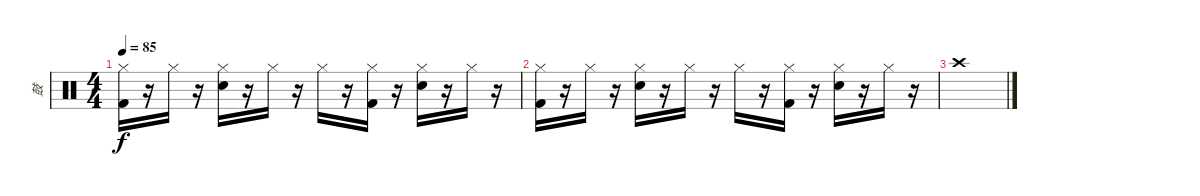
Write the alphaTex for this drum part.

\track ("鼓" "鼓") {instrument percussion}
\staff {score}
\articulation defaults
\ts (4 4)
\tempo 85
\clef neutral
\ks c
("Hi-Hat (closed)" "Kick (hit) 2").16{dy f} r.16 "Hi-Hat (closed)".16 r.16 ("Hi-Hat (closed)" "Snare (hit) 2").16 r.16 "Hi-Hat (closed)".16 r.16 "Hi-Hat (closed)".16 r.16 ("Hi-Hat (closed)" "Kick (hit) 2").16 r.16 ("Hi-Hat (closed)" "Snare (hit) 2").16 r.16 "Hi-Hat (closed)".16 r.16 |
("Hi-Hat (closed)" "Kick (hit) 2").16 r.16 "Hi-Hat (closed)".16 r.16 ("Hi-Hat (closed)" "Snare (hit) 2").16 r.16 "Hi-Hat (closed)".16 r.16 "Hi-Hat (closed)".16 r.16 ("Hi-Hat (closed)" "Kick (hit) 2").16 r.16 ("Hi-Hat (closed)" "Snare (hit) 2").16 r.16 "Hi-Hat (closed)".16 r.16 |
"Crash high (hit)".1
